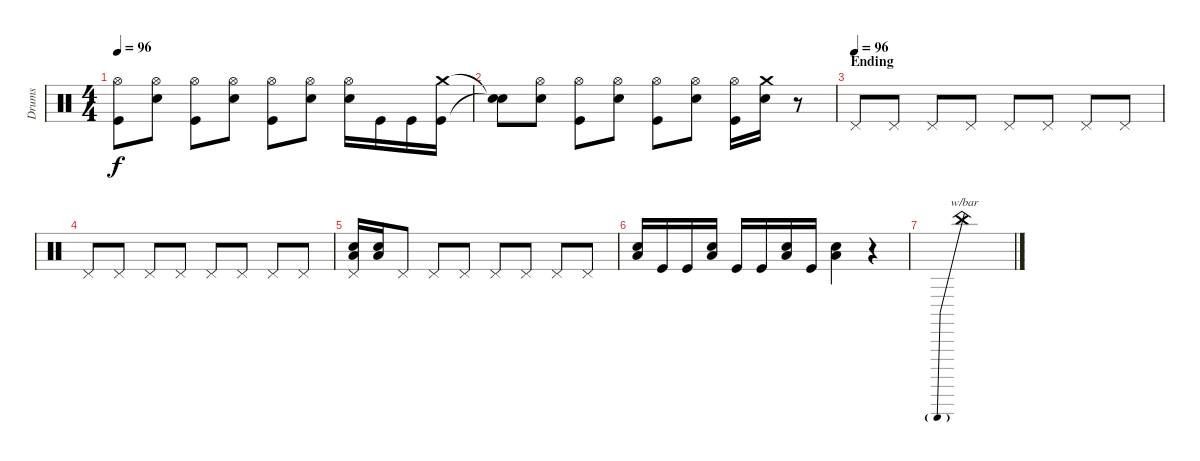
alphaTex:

\track ("Drums" "Drums") {instrument percussion}
\staff {score}
\articulation defaults
\ts (4 4)
\tempo 96
\clef neutral
\ks c
("Hi-Hat (open)" "Kick (hit)").8{dy f} ("Hi-Hat (open)" "Snare (hit) 2").8 ("Hi-Hat (open)" "Kick (hit)").8 ("Hi-Hat (open)" "Snare (hit) 2").8 ("Hi-Hat (open)" "Kick (hit)").8 ("Hi-Hat (open)" "Snare (hit) 2").8 ("Hi-Hat (open)" "Snare (hit) 2").16 "Kick (hit)".16 "Kick (hit)".16 ("Crash medium (hit)" "Kick (hit)").16 |
("Snare (hit)"{t} "Snare (hit)"{t}).8 ("Hi-Hat (open)" "Snare (hit) 2").8 ("Hi-Hat (open)" "Kick (hit)").8 ("Hi-Hat (open)" "Snare (hit) 2").8 ("Hi-Hat (open)" "Kick (hit)").8 ("Hi-Hat (open)" "Snare (hit) 2").8 ("Hi-Hat (open)" "Kick (hit)").16 ("Crash medium (hit)" "Snare (hit) 2").16 r.8 |
\section ("" "Ending")
\tempo (96)
"Pedal Hi-Hat (hit)".8 "Pedal Hi-Hat (hit)".8 "Pedal Hi-Hat (hit)".8 "Pedal Hi-Hat (hit)".8 "Pedal Hi-Hat (hit)".8 "Pedal Hi-Hat (hit)".8 "Pedal Hi-Hat (hit)".8 "Pedal Hi-Hat (hit)".8 |
"Pedal Hi-Hat (hit)".8 "Pedal Hi-Hat (hit)".8 "Pedal Hi-Hat (hit)".8 "Pedal Hi-Hat (hit)".8 "Pedal Hi-Hat (hit)".8 "Pedal Hi-Hat (hit)".8 "Pedal Hi-Hat (hit)".8 "Pedal Hi-Hat (hit)".8 |
("Pedal Hi-Hat (hit)" "Low Floor Tom (hit)" "Snare (hit) 2").16 ("Low Floor Tom (hit)" "Snare (hit) 2").16 "Pedal Hi-Hat (hit)".8 "Pedal Hi-Hat (hit)".8 "Pedal Hi-Hat (hit)".8 "Pedal Hi-Hat (hit)".8 "Pedal Hi-Hat (hit)".8 "Pedal Hi-Hat (hit)".8 "Pedal Hi-Hat (hit)".8 |
("Low Tom (hit)" "Snare (hit) 2").16 "Kick (hit)".16 "Kick (hit)".16 ("Low Tom (hit)" "Snare (hit) 2").16 "Kick (hit)".16 "Kick (hit)".16 ("Low Tom (hit)" "Snare (hit) 2").16 "Kick (hit)".16 ("Low Tom (hit)" "Snare (hit) 2").4 r.4 |
"China (hit)".1{tbe (predive default 0 -24 60 -24) volume 6}
